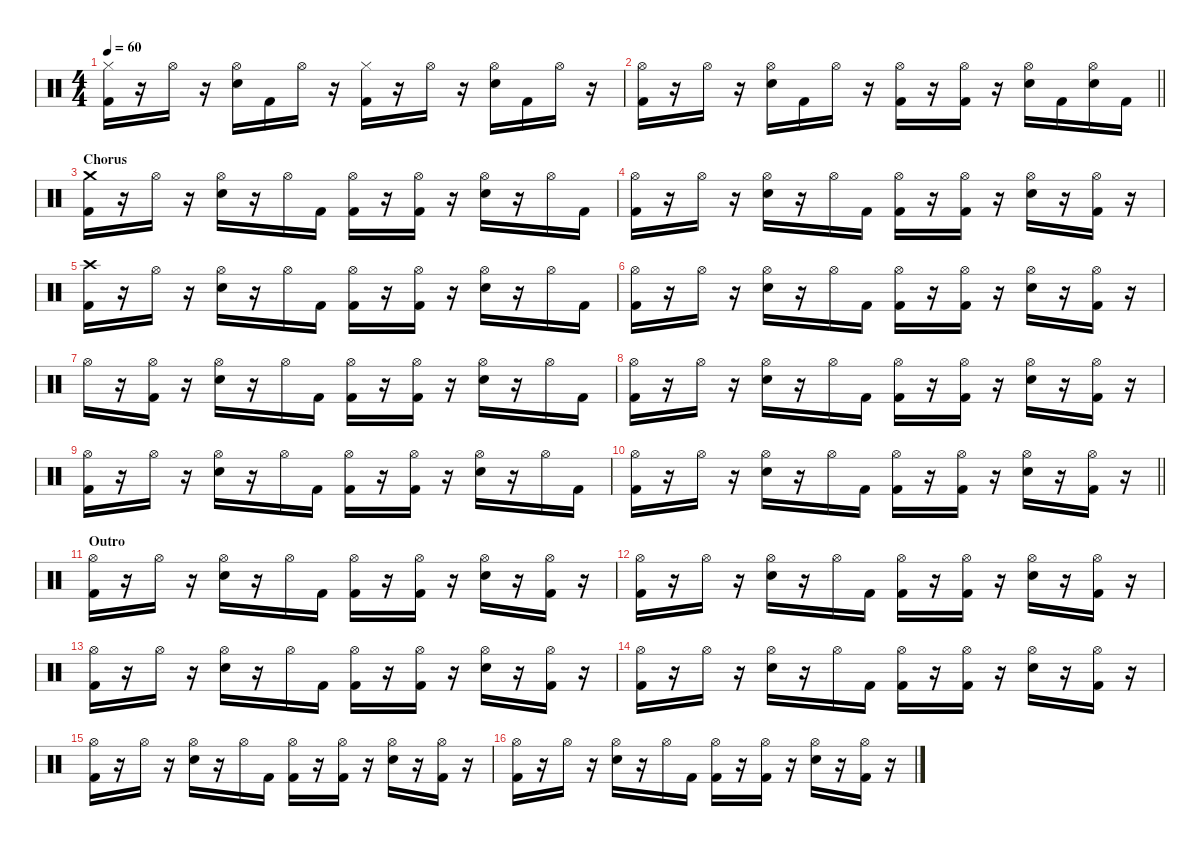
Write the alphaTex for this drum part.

\defaultSystemsLayout 4
\hideDynamics
\bracketExtendMode nobrackets
\singleTrackTrackNamePolicy hidden
\multiTrackTrackNamePolicy hidden
\firstSystemTrackNameMode fullname
\firstSystemTrackNameOrientation horizontal
\otherSystemsTrackNameOrientation horizontal
\track ("Gene Hoglan" "drm.") {instrument percussion}
\staff {score}
\articulation defaults
\ts (4 4)
\tempo 60
\clef neutral
\ks c
("Hi-Hat (closed)" "Kick (hit) 2").16{dy f beam Down} r.16{beam Down} "Hi-Hat (open)".16{beam Down} r.16{beam Down} ("Hi-Hat (open)" "Snare (hit) 2").16{beam Down} "Kick (hit) 2".16{beam Down} "Hi-Hat (open)".16{beam Down} r.16{beam Down} ("Hi-Hat (closed)" "Kick (hit) 2").16{beam Down} r.16{beam Down} "Hi-Hat (open)".16{beam Down} r.16{beam Down} ("Hi-Hat (open)" "Snare (hit) 2").16{beam Down} "Kick (hit) 2".16{beam Down} "Hi-Hat (open)".16{beam Down} r.16{beam Down} |
\barLineRight lightlight
("Hi-Hat (open)" "Kick (hit) 2").16{beam Down} r.16{beam Down} "Hi-Hat (open)".16{beam Down} r.16{beam Down} ("Hi-Hat (open)" "Snare (hit) 2").16{beam Down} "Kick (hit) 2".16{beam Down} "Hi-Hat (open)".16{beam Down} r.16{beam Down} ("Hi-Hat (open)" "Kick (hit) 2").16{beam Down} r.16{beam Down} ("Hi-Hat (open)" "Kick (hit) 2").16{beam Down} r.16{beam Down} ("Hi-Hat (open)" "Snare (hit) 2").16{beam Down} "Kick (hit) 2".16{beam Down} ("Hi-Hat (open)" "Snare (hit) 2").16{beam Down} "Kick (hit) 2".16{beam Down} |
\section ("" "Chorus")
("Crash medium (hit)" "Kick (hit) 2").16{beam Down} r.16{beam Down} "Hi-Hat (open)".16{beam Down} r.16{beam Down} ("Hi-Hat (open)" "Snare (hit) 2").16{beam Down} r.16{beam Down} "Hi-Hat (open)".16{beam Down} "Kick (hit) 2".16{beam Down} ("Hi-Hat (open)" "Kick (hit) 2").16{beam Down} r.16{beam Down} ("Hi-Hat (open)" "Kick (hit) 2").16{beam Down} r.16{beam Down} ("Hi-Hat (open)" "Snare (hit) 2").16{beam Down} r.16{beam Down} "Hi-Hat (open)".16{beam Down} "Kick (hit) 2".16{beam Down} |
("Hi-Hat (open)" "Kick (hit) 2").16{beam Down} r.16{beam Down} "Hi-Hat (open)".16{beam Down} r.16{beam Down} ("Hi-Hat (open)" "Snare (hit) 2").16{beam Down} r.16{beam Down} "Hi-Hat (open)".16{beam Down} "Kick (hit) 2".16{beam Down} ("Hi-Hat (open)" "Kick (hit) 2").16{beam Down} r.16{beam Down} ("Hi-Hat (open)" "Kick (hit) 2").16{beam Down} r.16{beam Down} ("Hi-Hat (open)" "Snare (hit) 2").16{beam Down} r.16{beam Down} ("Hi-Hat (open)" "Kick (hit) 2").16{beam Down} r.16{beam Down} |
("Crash high (hit)" "Kick (hit) 2").16{beam Down} r.16{beam Down} "Hi-Hat (open)".16{beam Down} r.16{beam Down} ("Hi-Hat (open)" "Snare (hit) 2").16{beam Down} r.16{beam Down} "Hi-Hat (open)".16{beam Down} "Kick (hit) 2".16{beam Down} ("Hi-Hat (open)" "Kick (hit) 2").16{beam Down} r.16{beam Down} ("Hi-Hat (open)" "Kick (hit) 2").16{beam Down} r.16{beam Down} ("Hi-Hat (open)" "Snare (hit) 2").16{beam Down} r.16{beam Down} "Hi-Hat (open)".16{beam Down} "Kick (hit) 2".16{beam Down} |
("Hi-Hat (open)" "Kick (hit) 2").16{beam Down} r.16{beam Down} "Hi-Hat (open)".16{beam Down} r.16{beam Down} ("Hi-Hat (open)" "Snare (hit) 2").16{beam Down} r.16{beam Down} "Hi-Hat (open)".16{beam Down} "Kick (hit) 2".16{beam Down} ("Hi-Hat (open)" "Kick (hit) 2").16{beam Down} r.16{beam Down} ("Hi-Hat (open)" "Kick (hit) 2").16{beam Down} r.16{beam Down} ("Hi-Hat (open)" "Snare (hit) 2").16{beam Down} r.16{beam Down} ("Hi-Hat (open)" "Kick (hit) 2").16{beam Down} r.16{beam Down} |
"Hi-Hat (open)".16{beam Down} r.16{beam Down} ("Hi-Hat (open)" "Kick (hit) 2").16{beam Down} r.16{beam Down} ("Hi-Hat (open)" "Snare (hit) 2").16{beam Down} r.16{beam Down} "Hi-Hat (open)".16{beam Down} "Kick (hit) 2".16{beam Down} ("Hi-Hat (open)" "Kick (hit) 2").16{beam Down} r.16{beam Down} ("Hi-Hat (open)" "Kick (hit) 2").16{beam Down} r.16{beam Down} ("Hi-Hat (open)" "Snare (hit) 2").16{beam Down} r.16{beam Down} "Hi-Hat (open)".16{beam Down} "Kick (hit) 2".16{beam Down} |
("Hi-Hat (open)" "Kick (hit) 2").16{beam Down} r.16{beam Down} "Hi-Hat (open)".16{beam Down} r.16{beam Down} ("Hi-Hat (open)" "Snare (hit) 2").16{beam Down} r.16{beam Down} "Hi-Hat (open)".16{beam Down} "Kick (hit) 2".16{beam Down} ("Hi-Hat (open)" "Kick (hit) 2").16{beam Down} r.16{beam Down} ("Hi-Hat (open)" "Kick (hit) 2").16{beam Down} r.16{beam Down} ("Hi-Hat (open)" "Snare (hit) 2").16{beam Down} r.16{beam Down} ("Hi-Hat (open)" "Kick (hit) 2").16{beam Down} r.16{beam Down} |
("Hi-Hat (open)" "Kick (hit) 2").16{beam Down} r.16{beam Down} "Hi-Hat (open)".16{beam Down} r.16{beam Down} ("Hi-Hat (open)" "Snare (hit) 2").16{beam Down} r.16{beam Down} "Hi-Hat (open)".16{beam Down} "Kick (hit) 2".16{beam Down} ("Hi-Hat (open)" "Kick (hit) 2").16{beam Down} r.16{beam Down} ("Hi-Hat (open)" "Kick (hit) 2").16{beam Down} r.16{beam Down} ("Hi-Hat (open)" "Snare (hit) 2").16{beam Down} r.16{beam Down} "Hi-Hat (open)".16{beam Down} "Kick (hit) 2".16{beam Down} |
\barLineRight lightlight
("Hi-Hat (open)" "Kick (hit) 2").16{beam Down} r.16{beam Down} "Hi-Hat (open)".16{beam Down} r.16{beam Down} ("Hi-Hat (open)" "Snare (hit) 2").16{beam Down} r.16{beam Down} "Hi-Hat (open)".16{beam Down} "Kick (hit) 2".16{beam Down} ("Hi-Hat (open)" "Kick (hit) 2").16{beam Down} r.16{beam Down} ("Hi-Hat (open)" "Kick (hit) 2").16{beam Down} r.16{beam Down} ("Hi-Hat (open)" "Snare (hit) 2").16{beam Down} r.16{beam Down} ("Hi-Hat (open)" "Kick (hit) 2").16{beam Down} r.16{beam Down} |
\section ("" "Outro")
("Hi-Hat (open)" "Kick (hit) 2").16{beam Down} r.16{beam Down} "Hi-Hat (open)".16{beam Down} r.16{beam Down} ("Hi-Hat (open)" "Snare (hit) 2").16{beam Down} r.16{beam Down} "Hi-Hat (open)".16{beam Down} "Kick (hit) 2".16{beam Down} ("Hi-Hat (open)" "Kick (hit) 2").16{beam Down} r.16{beam Down} ("Hi-Hat (open)" "Kick (hit) 2").16{beam Down} r.16{beam Down} ("Hi-Hat (open)" "Snare (hit) 2").16{beam Down} r.16{beam Down} ("Hi-Hat (open)" "Kick (hit) 2").16{beam Down} r.16{beam Down} |
("Hi-Hat (open)" "Kick (hit) 2").16{beam Down} r.16{beam Down} "Hi-Hat (open)".16{beam Down} r.16{beam Down} ("Hi-Hat (open)" "Snare (hit) 2").16{beam Down} r.16{beam Down} "Hi-Hat (open)".16{beam Down} "Kick (hit) 2".16{beam Down} ("Hi-Hat (open)" "Kick (hit) 2").16{beam Down} r.16{beam Down} ("Hi-Hat (open)" "Kick (hit) 2").16{beam Down} r.16{beam Down} ("Hi-Hat (open)" "Snare (hit) 2").16{beam Down} r.16{beam Down} ("Hi-Hat (open)" "Kick (hit) 2").16{beam Down} r.16{beam Down} |
("Hi-Hat (open)" "Kick (hit) 2").16{beam Down} r.16{beam Down} "Hi-Hat (open)".16{beam Down} r.16{beam Down} ("Hi-Hat (open)" "Snare (hit) 2").16{beam Down} r.16{beam Down} "Hi-Hat (open)".16{beam Down} "Kick (hit) 2".16{beam Down} ("Hi-Hat (open)" "Kick (hit) 2").16{beam Down} r.16{beam Down} ("Hi-Hat (open)" "Kick (hit) 2").16{beam Down} r.16{beam Down} ("Hi-Hat (open)" "Snare (hit) 2").16{beam Down} r.16{beam Down} ("Hi-Hat (open)" "Kick (hit) 2").16{beam Down} r.16{beam Down} |
("Hi-Hat (open)" "Kick (hit) 2").16{beam Down} r.16{beam Down} "Hi-Hat (open)".16{beam Down} r.16{beam Down} ("Hi-Hat (open)" "Snare (hit) 2").16{beam Down} r.16{beam Down} "Hi-Hat (open)".16{beam Down} "Kick (hit) 2".16{beam Down} ("Hi-Hat (open)" "Kick (hit) 2").16{beam Down} r.16{beam Down} ("Hi-Hat (open)" "Kick (hit) 2").16{beam Down} r.16{beam Down} ("Hi-Hat (open)" "Snare (hit) 2").16{beam Down} r.16{beam Down} ("Hi-Hat (open)" "Kick (hit) 2").16{beam Down} r.16{beam Down} |
("Hi-Hat (open)" "Kick (hit) 2").16{beam Down} r.16{beam Down} "Hi-Hat (open)".16{beam Down} r.16{beam Down} ("Hi-Hat (open)" "Snare (hit) 2").16{beam Down} r.16{beam Down} "Hi-Hat (open)".16{beam Down} "Kick (hit) 2".16{beam Down} ("Hi-Hat (open)" "Kick (hit) 2").16{beam Down} r.16{beam Down} ("Hi-Hat (open)" "Kick (hit) 2").16{beam Down} r.16{beam Down} ("Hi-Hat (open)" "Snare (hit) 2").16{beam Down} r.16{beam Down} ("Hi-Hat (open)" "Kick (hit) 2").16{beam Down} r.16{beam Down} |
("Hi-Hat (open)" "Kick (hit) 2").16{beam Down} r.16{beam Down} "Hi-Hat (open)".16{beam Down} r.16{beam Down} ("Hi-Hat (open)" "Snare (hit) 2").16{beam Down} r.16{beam Down} "Hi-Hat (open)".16{beam Down} "Kick (hit) 2".16{beam Down} ("Hi-Hat (open)" "Kick (hit) 2").16{beam Down} r.16{beam Down} ("Hi-Hat (open)" "Kick (hit) 2").16{beam Down} r.16{beam Down} ("Hi-Hat (open)" "Snare (hit) 2").16{beam Down} r.16{beam Down} ("Hi-Hat (open)" "Kick (hit) 2").16{beam Down} r.16{beam Down}
